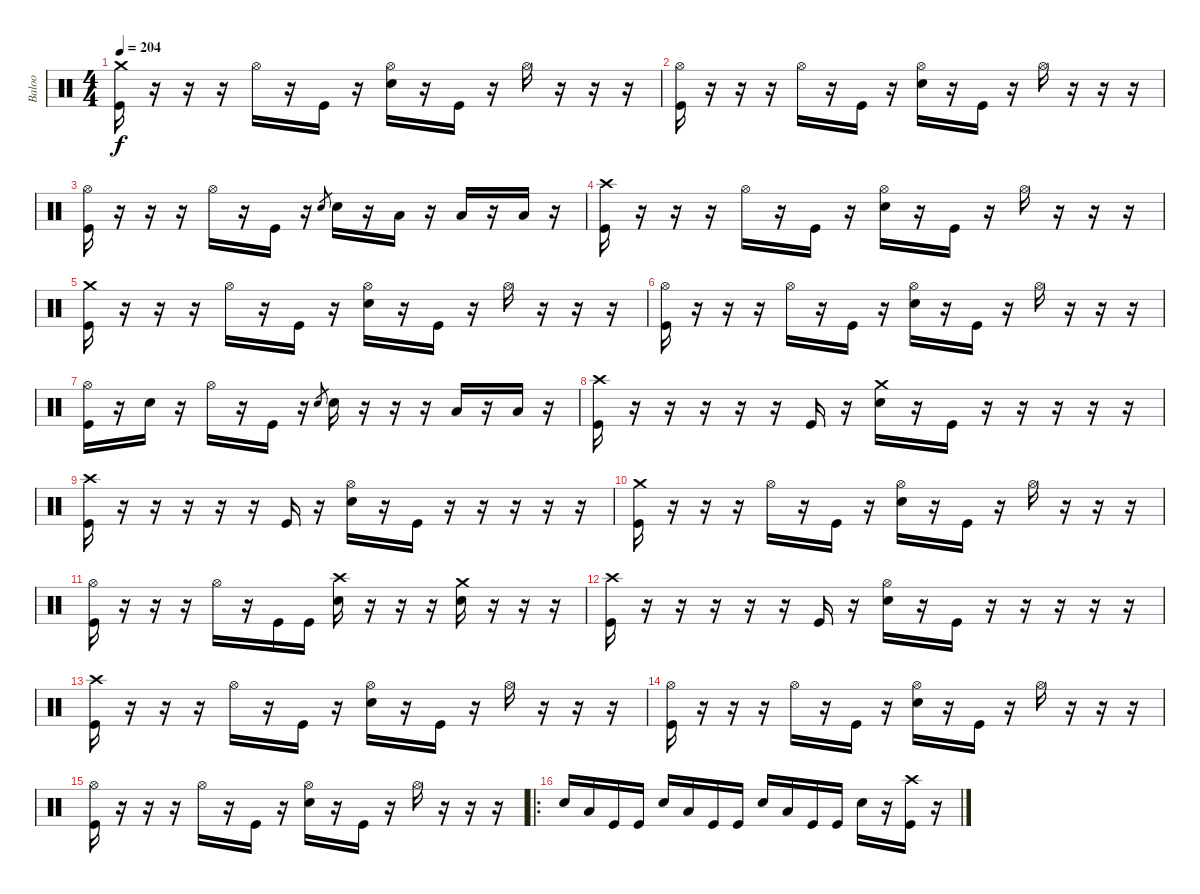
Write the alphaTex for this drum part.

\track ("Baloo" "Baloo") {instrument percussion}
\staff {score}
\articulation defaults
\ts (4 4)
\tempo 204
\clef neutral
\ks c
("Crash medium (hit)" "Kick (hit)").16{dy f} r.16 r.16 r.16 "Hi-Hat (open)".16 r.16 "Kick (hit)".16 r.16 ("Hi-Hat (open)" "Electric Snare (hit)").16 r.16 "Kick (hit)".16 r.16 "Hi-Hat (open)".16 r.16 r.16 r.16 |
("Hi-Hat (open)" "Kick (hit)").16 r.16 r.16 r.16 "Hi-Hat (open)".16 r.16 "Kick (hit)".16 r.16 ("Hi-Hat (open)" "Electric Snare (hit)").16 r.16 "Kick (hit)".16 r.16 "Hi-Hat (open)".16 r.16 r.16 r.16 |
("Hi-Hat (open)" "Kick (hit)").16 r.16 r.16 r.16 "Hi-Hat (open)".16 r.16 "Kick (hit)".16 r.16 "Electric Snare (hit)".8{gr} "Electric Snare (hit)".16 r.16 "Low Tom (hit)".16 r.16 "Low Tom (hit)".16 r.16 "Low Floor Tom (hit)".16 r.16 |
("Crash high (hit)" "Kick (hit)").16 r.16 r.16 r.16 "Hi-Hat (open)".16 r.16 "Kick (hit)".16 r.16 ("Hi-Hat (open)" "Electric Snare (hit)").16 r.16 "Kick (hit)".16 r.16 "Hi-Hat (open)".16 r.16 r.16 r.16 |
("Crash medium (hit)" "Kick (hit)").16 r.16 r.16 r.16 "Hi-Hat (open)".16 r.16 "Kick (hit)".16 r.16 ("Hi-Hat (open)" "Electric Snare (hit)").16 r.16 "Kick (hit)".16 r.16 "Hi-Hat (open)".16 r.16 r.16 r.16 |
("Hi-Hat (open)" "Kick (hit)").16 r.16 r.16 r.16 "Hi-Hat (open)".16 r.16 "Kick (hit)".16 r.16 ("Hi-Hat (open)" "Electric Snare (hit)").16 r.16 "Kick (hit)".16 r.16 "Hi-Hat (open)".16 r.16 r.16 r.16 |
("Hi-Hat (open)" "Kick (hit)").16 r.16 "Electric Snare (hit)".16 r.16 "Hi-Hat (open)".16 r.16 "Kick (hit)".16 r.16 "Electric Snare (hit)".8{gr} "Electric Snare (hit)".16 r.16 r.16 r.16 "Low Tom (hit)".16 r.16 "Low Floor Tom (hit)".16 r.16 |
("Crash high (hit)" "Kick (hit)").16 r.16 r.16 r.16 r.16 r.16 "Kick (hit)".16 r.16 ("Crash medium (hit)" "Electric Snare (hit)").16 r.16 "Kick (hit)".16 r.16 r.16 r.16 r.16 r.16 |
("Crash high (hit)" "Kick (hit)").16 r.16 r.16 r.16 r.16 r.16 "Kick (hit)".16 r.16 ("Hi-Hat (open)" "Electric Snare (hit)").16 r.16 "Kick (hit)".16 r.16 r.16 r.16 r.16 r.16 |
("Crash medium (hit)" "Kick (hit)").16 r.16 r.16 r.16 "Hi-Hat (open)".16 r.16 "Kick (hit)".16 r.16 ("Hi-Hat (open)" "Electric Snare (hit)").16 r.16 "Kick (hit)".16 r.16 "Hi-Hat (open)".16 r.16 r.16 r.16 |
("Hi-Hat (open)" "Kick (hit)").16 r.16 r.16 r.16 "Hi-Hat (open)".16 r.16 "Kick (hit)".16 "Kick (hit)".16 ("Crash high (hit)" "Electric Snare (hit)").16 r.16 r.16 r.16 ("Crash medium (hit)" "Electric Snare (hit)").16 r.16 r.16 r.16 |
("Crash high (hit)" "Kick (hit)").16 r.16 r.16 r.16 r.16 r.16 "Kick (hit)".16 r.16 ("Hi-Hat (open)" "Electric Snare (hit)").16 r.16 "Kick (hit)".16 r.16 r.16 r.16 r.16 r.16 |
("Crash high (hit)" "Kick (hit)").16 r.16 r.16 r.16 "Hi-Hat (open)".16 r.16 "Kick (hit)".16 r.16 ("Hi-Hat (open)" "Electric Snare (hit)").16 r.16 "Kick (hit)".16 r.16 "Hi-Hat (open)".16 r.16 r.16 r.16 |
("Hi-Hat (open)" "Kick (hit)").16 r.16 r.16 r.16 "Hi-Hat (open)".16 r.16 "Kick (hit)".16 r.16 ("Hi-Hat (open)" "Electric Snare (hit)").16 r.16 "Kick (hit)".16 r.16 "Hi-Hat (open)".16 r.16 r.16 r.16 |
("Hi-Hat (open)" "Kick (hit)").16 r.16 r.16 r.16 "Hi-Hat (open)".16 r.16 "Kick (hit)".16 r.16 ("Hi-Hat (open)" "Electric Snare (hit)").16 r.16 "Kick (hit)".16 r.16 "Hi-Hat (open)".16 r.16 r.16 r.16 |
\ro "Electric Snare (hit)".16 "Low Floor Tom (hit)".16 "Kick (hit)".16 "Kick (hit)".16 "Electric Snare (hit)".16 "Low Floor Tom (hit)".16 "Kick (hit)".16 "Kick (hit)".16 "Electric Snare (hit)".16 "Low Floor Tom (hit)".16 "Kick (hit)".16 "Kick (hit)".16 "Electric Snare (hit)".16
r.16 ("Crash high (hit)" "Kick (hit)").16 r.16
